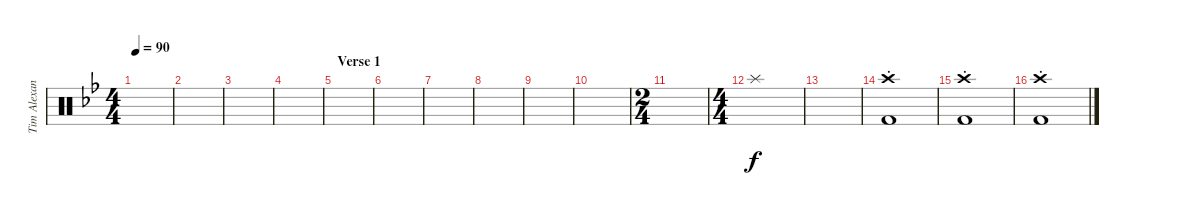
\track ("Tim Alexander - Drums" "Tim Alexan") {instrument percussion}
\staff {score}
\articulation defaults
\ts (4 4)
\tempo 90
\clef neutral
\ks bb
|
|
|
|
\section ("" "Verse 1")
|
|
|
|
|
|
\ts (2 4)
|
\ts (4 4)
"Splash (hit)".1 |
|
("Crash high (hit)"{st} "Kick (hit) 2").1 |
("Crash high (hit)"{st} "Kick (hit) 2").1 |
("Crash high (hit)"{st} "Kick (hit) 2").1
